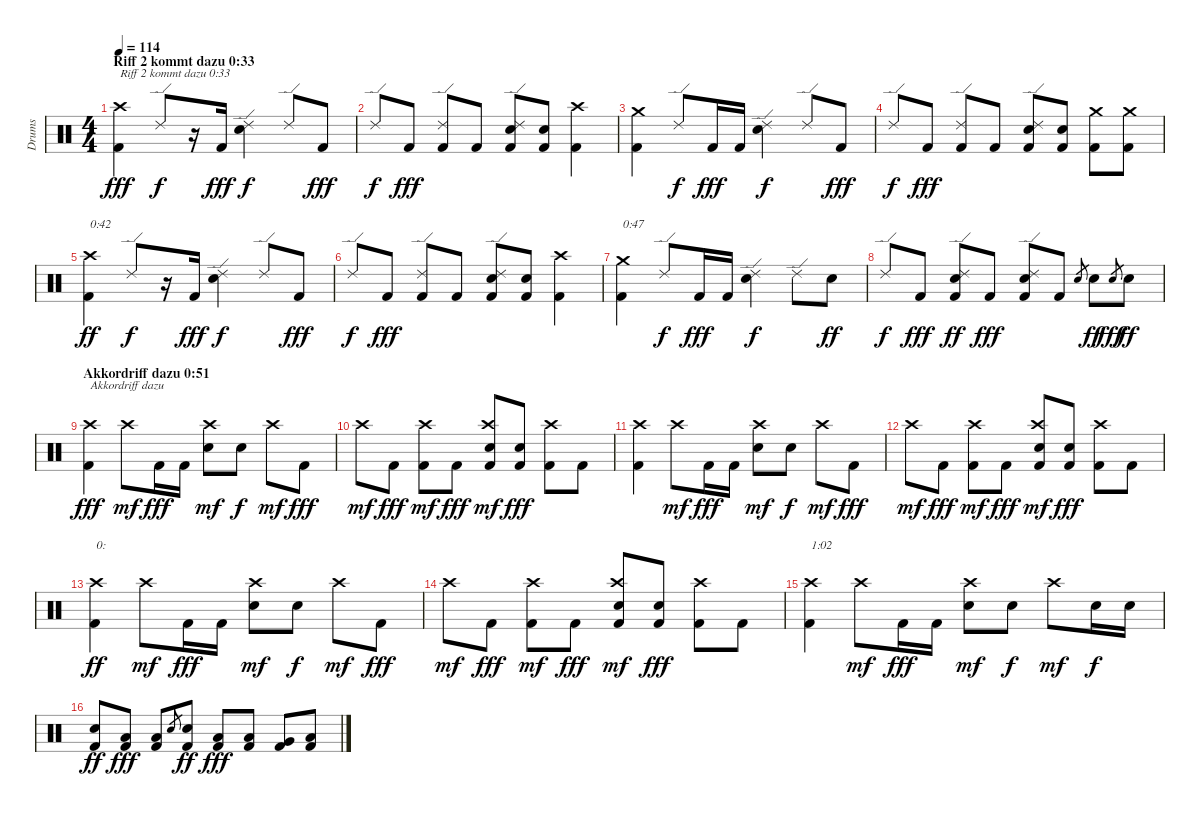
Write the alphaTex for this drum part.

\track ("Drums" "Drums") {instrument percussion}
\staff {score}
\articulation defaults
\ts (4 4)
\section ("" "Riff 2 kommt dazu 0:33")
\tempo 114
\clef neutral
\ks c
("Kick (hit) 2" "Crash high (hit)").4{txt "Riff 2 kommt dazu 0:33" dy fff} "Ride (edge) 2".8{dy f} r.16 "Kick (hit) 2".16{dy fff} ("Electric Snare (hit)" "Ride (edge) 2").4{dy f} "Ride (edge) 2".8 "Kick (hit) 2".8{dy fff} |
"Ride (edge) 2".8{dy f} "Kick (hit) 2".8{dy fff} ("Kick (hit) 2" "Ride (edge) 2").8 "Kick (hit) 2".8 ("Kick (hit) 2" "Electric Snare (hit)" "Ride (edge) 2").8 ("Kick (hit) 2" "Electric Snare (hit)").8 ("Kick (hit) 2" "Crash high (hit)").4 |
("Kick (hit) 2" "Crash medium (hit)").4 "Ride (edge) 2".8{dy f} "Kick (hit) 2".16{dy fff} "Kick (hit) 2".16 ("Electric Snare (hit)" "Ride (edge) 2").4{dy f} "Ride (edge) 2".8 "Kick (hit) 2".8{dy fff} |
"Ride (edge) 2".8{dy f} "Kick (hit) 2".8{dy fff} ("Kick (hit) 2" "Ride (edge) 2").8 "Kick (hit) 2".8 ("Kick (hit) 2" "Electric Snare (hit)" "Ride (edge) 2").8 ("Kick (hit) 2" "Electric Snare (hit)").8 ("Kick (hit) 2" "Crash medium (hit)").8 ("Kick (hit) 2" "Crash medium (hit)").8 |
("Kick (hit) 2" "Crash high (hit)").4{txt "0:42" dy ff} "Ride (edge) 2".8{dy f} r.16 "Kick (hit) 2".16{dy fff} ("Electric Snare (hit)" "Ride (edge) 2").4{dy f} "Ride (edge) 2".8 "Kick (hit) 2".8{dy fff} |
"Ride (edge) 2".8{dy f} "Kick (hit) 2".8{dy fff} ("Kick (hit) 2" "Ride (edge) 2").8 "Kick (hit) 2".8 ("Kick (hit) 2" "Electric Snare (hit)" "Ride (edge) 2").8 ("Kick (hit) 2" "Electric Snare (hit)").8 ("Kick (hit) 2" "Crash high (hit)").4 |
("Kick (hit) 2" "Crash medium (hit)").4{txt "0:47"} "Ride (edge) 2".8{dy f} "Kick (hit) 2".16{dy fff} "Kick (hit) 2".16 ("Electric Snare (hit)" "Ride (edge) 2").4{dy f} "Ride (edge) 2".8 "Electric Snare (hit)".8{dy ff} |
"Ride (edge) 2".8{dy f} "Kick (hit) 2".8{dy fff} ("Kick (hit) 2" "Electric Snare (hit)" "Ride (edge) 2").8{dy ff} "Kick (hit) 2".8{dy fff} ("Kick (hit) 2" "Electric Snare (hit)" "Ride (edge) 2").8 "Kick (hit) 2".8 "Electric Snare (hit)".8{gr} "Electric Snare (hit)".8{dy ff} "Electric Snare (hit)".8{gr dy fff} "Electric Snare (hit)".8{dy ff} |
\section ("" "Akkordriff dazu 0:51")
("Kick (hit) 2" "Crash high (hit)").4{txt "Akkordriff dazu" dy fff} "Crash high (hit)".8{dy mf} "Kick (hit) 2".16{dy fff} "Kick (hit) 2".16 ("Electric Snare (hit)" "Crash high (hit)").8{dy mf} "Electric Snare (hit)".8{dy f} "Crash high (hit)".8{dy mf} "Kick (hit) 2".8{dy fff} |
"Crash high (hit)".8{dy mf} "Kick (hit) 2".8{dy fff} ("Kick (hit) 2" "Crash high (hit)").8{dy mf} "Kick (hit) 2".8{dy fff} ("Kick (hit) 2" "Electric Snare (hit)" "Crash high (hit)").8{dy mf} ("Kick (hit) 2" "Electric Snare (hit)").8{dy fff} ("Kick (hit) 2" "Crash high (hit)").8 "Kick (hit) 2".8 |
("Kick (hit) 2" "Crash high (hit)").4 "Crash high (hit)".8{dy mf} "Kick (hit) 2".16{dy fff} "Kick (hit) 2".16 ("Electric Snare (hit)" "Crash high (hit)").8{dy mf} "Electric Snare (hit)".8{dy f} "Crash high (hit)".8{dy mf} "Kick (hit) 2".8{dy fff} |
"Crash high (hit)".8{dy mf} "Kick (hit) 2".8{dy fff} ("Kick (hit) 2" "Crash high (hit)").8{dy mf} "Kick (hit) 2".8{dy fff} ("Kick (hit) 2" "Electric Snare (hit)" "Crash high (hit)").8{dy mf} ("Kick (hit) 2" "Electric Snare (hit)").8{dy fff} ("Kick (hit) 2" "Crash high (hit)").8 "Kick (hit) 2".8 |
("Kick (hit) 2" "Crash high (hit)").4{txt "0:" dy ff} "Crash high (hit)".8{dy mf} "Kick (hit) 2".16{dy fff} "Kick (hit) 2".16 ("Electric Snare (hit)" "Crash high (hit)").8{dy mf} "Electric Snare (hit)".8{dy f} "Crash high (hit)".8{dy mf} "Kick (hit) 2".8{dy fff} |
"Crash high (hit)".8{dy mf} "Kick (hit) 2".8{dy fff} ("Kick (hit) 2" "Crash high (hit)").8{dy mf} "Kick (hit) 2".8{dy fff} ("Kick (hit) 2" "Electric Snare (hit)" "Crash high (hit)").8{dy mf} ("Kick (hit) 2" "Electric Snare (hit)").8{dy fff} ("Kick (hit) 2" "Crash high (hit)").8 "Kick (hit) 2".8 |
("Kick (hit) 2" "Crash high (hit)").4{txt "1:02"} "Crash high (hit)".8{dy mf} "Kick (hit) 2".16{dy fff} "Kick (hit) 2".16 ("Electric Snare (hit)" "Crash high (hit)").8{dy mf} "Electric Snare (hit)".8{dy f} "Crash high (hit)".8{dy mf} "Electric Snare (hit)".16{dy f} "Electric Snare (hit)".16 |
("Kick (hit) 2" "Electric Snare (hit)").8{dy ff} ("Kick (hit) 2" "Low Tom (hit)").8{dy fff} ("Kick (hit) 2" "Low Tom (hit)").8 "Electric Snare (hit)".8{gr} ("Kick (hit) 2" "Electric Snare (hit)").8{dy ff} ("Kick (hit) 2" "Low Tom (hit)").8{dy fff} ("Kick (hit) 2" "Low Tom (hit)").8 ("Kick (hit) 2" "Very Low Tom (hit)").8 ("Kick (hit) 2" "Low Floor Tom (hit)").8
